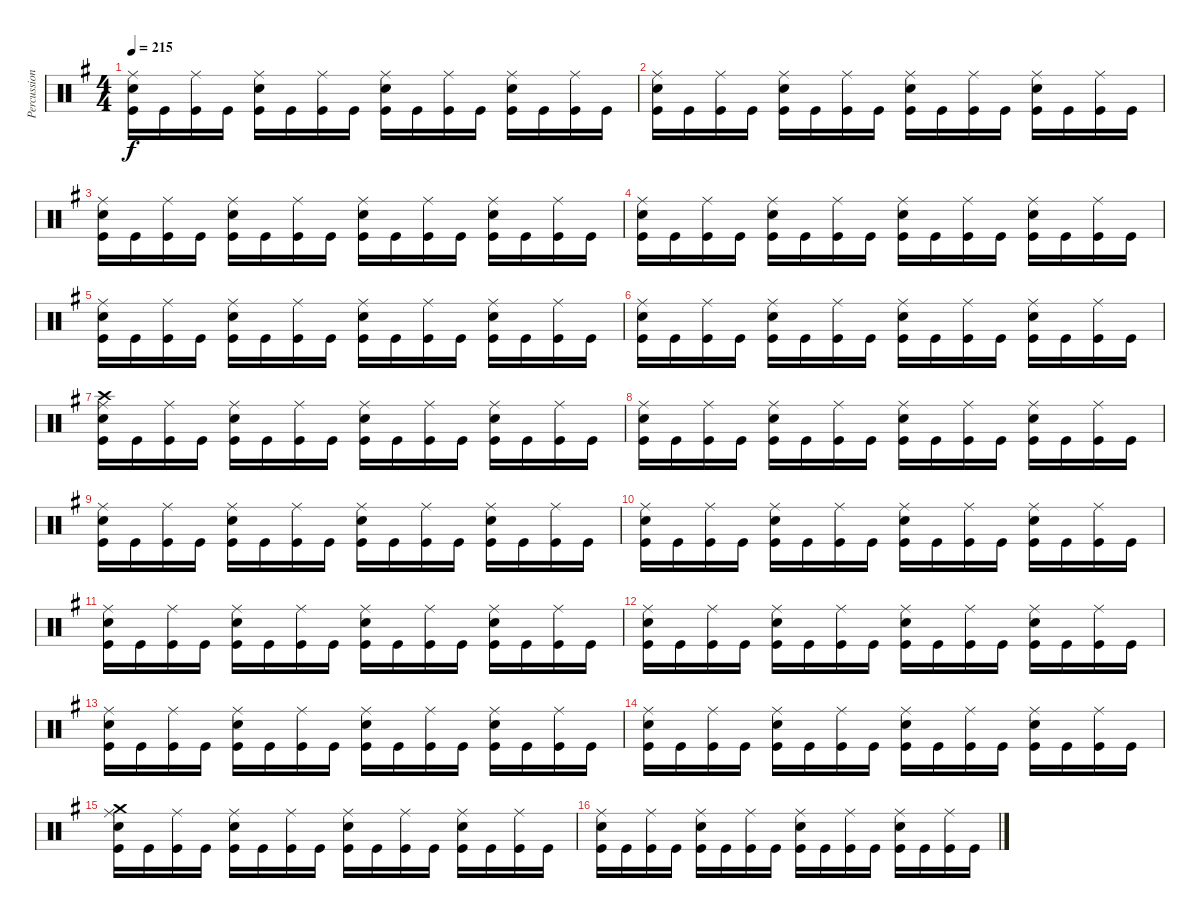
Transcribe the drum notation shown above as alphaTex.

\track ("Percussion" "Percussion") {instrument percussion}
\staff {score}
\articulation defaults
\ts (4 4)
\tempo 215
\clef neutral
\ks eminor
("Ride (middle)" "Electric Snare (hit)" "Kick (hit)").16{dy f} "Kick (hit)".16 ("Ride (middle)" "Kick (hit)").16 "Kick (hit)".16 ("Ride (middle)" "Electric Snare (hit)" "Kick (hit)").16 "Kick (hit)".16 ("Ride (middle)" "Kick (hit)").16 "Kick (hit)".16 ("Ride (middle)" "Electric Snare (hit)" "Kick (hit)").16 "Kick (hit)".16 ("Ride (middle)" "Kick (hit)").16 "Kick (hit)".16 ("Ride (middle)" "Electric Snare (hit)" "Kick (hit)").16 "Kick (hit)".16 ("Ride (middle)" "Kick (hit)").16 "Kick (hit)".16 |
("Ride (middle)" "Electric Snare (hit)" "Kick (hit)").16 "Kick (hit)".16 ("Ride (middle)" "Kick (hit)").16 "Kick (hit)".16 ("Ride (middle)" "Electric Snare (hit)" "Kick (hit)").16 "Kick (hit)".16 ("Ride (middle)" "Kick (hit)").16 "Kick (hit)".16 ("Ride (middle)" "Electric Snare (hit)" "Kick (hit)").16 "Kick (hit)".16 ("Ride (middle)" "Kick (hit)").16 "Kick (hit)".16 ("Ride (middle)" "Electric Snare (hit)" "Kick (hit)").16 "Kick (hit)".16 ("Ride (middle)" "Kick (hit)").16 "Kick (hit)".16 |
("Ride (middle)" "Electric Snare (hit)" "Kick (hit)").16 "Kick (hit)".16 ("Ride (middle)" "Kick (hit)").16 "Kick (hit)".16 ("Ride (middle)" "Electric Snare (hit)" "Kick (hit)").16 "Kick (hit)".16 ("Ride (middle)" "Kick (hit)").16 "Kick (hit)".16 ("Ride (middle)" "Electric Snare (hit)" "Kick (hit)").16 "Kick (hit)".16 ("Ride (middle)" "Kick (hit)").16 "Kick (hit)".16 ("Ride (middle)" "Electric Snare (hit)" "Kick (hit)").16 "Kick (hit)".16 ("Ride (middle)" "Kick (hit)").16 "Kick (hit)".16 |
("Ride (middle)" "Electric Snare (hit)" "Kick (hit)").16 "Kick (hit)".16 ("Ride (middle)" "Kick (hit)").16 "Kick (hit)".16 ("Ride (middle)" "Electric Snare (hit)" "Kick (hit)").16 "Kick (hit)".16 ("Ride (middle)" "Kick (hit)").16 "Kick (hit)".16 ("Ride (middle)" "Electric Snare (hit)" "Kick (hit)").16 "Kick (hit)".16 ("Ride (middle)" "Kick (hit)").16 "Kick (hit)".16 ("Ride (middle)" "Electric Snare (hit)" "Kick (hit)").16 "Kick (hit)".16 ("Ride (middle)" "Kick (hit)").16 "Kick (hit)".16 |
("Ride (middle)" "Electric Snare (hit)" "Kick (hit)").16 "Kick (hit)".16 ("Ride (middle)" "Kick (hit)").16 "Kick (hit)".16 ("Ride (middle)" "Electric Snare (hit)" "Kick (hit)").16 "Kick (hit)".16 ("Ride (middle)" "Kick (hit)").16 "Kick (hit)".16 ("Ride (middle)" "Electric Snare (hit)" "Kick (hit)").16 "Kick (hit)".16 ("Ride (middle)" "Kick (hit)").16 "Kick (hit)".16 ("Ride (middle)" "Electric Snare (hit)" "Kick (hit)").16 "Kick (hit)".16 ("Ride (middle)" "Kick (hit)").16 "Kick (hit)".16 |
("Ride (middle)" "Electric Snare (hit)" "Kick (hit)").16 "Kick (hit)".16 ("Ride (middle)" "Kick (hit)").16 "Kick (hit)".16 ("Ride (middle)" "Electric Snare (hit)" "Kick (hit)").16 "Kick (hit)".16 ("Ride (middle)" "Kick (hit)").16 "Kick (hit)".16 ("Ride (middle)" "Electric Snare (hit)" "Kick (hit)").16 "Kick (hit)".16 ("Ride (middle)" "Kick (hit)").16 "Kick (hit)".16 ("Ride (middle)" "Electric Snare (hit)" "Kick (hit)").16 "Kick (hit)".16 ("Ride (middle)" "Kick (hit)").16 "Kick (hit)".16 |
("Crash high (hit)" "Ride (middle)" "Electric Snare (hit)" "Kick (hit)").16 "Kick (hit)".16 ("Ride (middle)" "Kick (hit)").16 "Kick (hit)".16 ("Ride (middle)" "Electric Snare (hit)" "Kick (hit)").16 "Kick (hit)".16 ("Ride (middle)" "Kick (hit)").16 "Kick (hit)".16 ("Ride (middle)" "Electric Snare (hit)" "Kick (hit)").16 "Kick (hit)".16 ("Ride (middle)" "Kick (hit)").16 "Kick (hit)".16 ("Ride (middle)" "Electric Snare (hit)" "Kick (hit)").16 "Kick (hit)".16 ("Ride (middle)" "Kick (hit)").16 "Kick (hit)".16 |
("Ride (middle)" "Electric Snare (hit)" "Kick (hit)").16 "Kick (hit)".16 ("Ride (middle)" "Kick (hit)").16 "Kick (hit)".16 ("Ride (middle)" "Electric Snare (hit)" "Kick (hit)").16 "Kick (hit)".16 ("Ride (middle)" "Kick (hit)").16 "Kick (hit)".16 ("Ride (middle)" "Electric Snare (hit)" "Kick (hit)").16 "Kick (hit)".16 ("Ride (middle)" "Kick (hit)").16 "Kick (hit)".16 ("Ride (middle)" "Electric Snare (hit)" "Kick (hit)").16 "Kick (hit)".16 ("Ride (middle)" "Kick (hit)").16 "Kick (hit)".16 |
("Ride (middle)" "Electric Snare (hit)" "Kick (hit)").16 "Kick (hit)".16 ("Ride (middle)" "Kick (hit)").16 "Kick (hit)".16 ("Ride (middle)" "Electric Snare (hit)" "Kick (hit)").16 "Kick (hit)".16 ("Ride (middle)" "Kick (hit)").16 "Kick (hit)".16 ("Ride (middle)" "Electric Snare (hit)" "Kick (hit)").16 "Kick (hit)".16 ("Ride (middle)" "Kick (hit)").16 "Kick (hit)".16 ("Ride (middle)" "Electric Snare (hit)" "Kick (hit)").16 "Kick (hit)".16 ("Ride (middle)" "Kick (hit)").16 "Kick (hit)".16 |
("Ride (middle)" "Electric Snare (hit)" "Kick (hit)").16 "Kick (hit)".16 ("Ride (middle)" "Kick (hit)").16 "Kick (hit)".16 ("Ride (middle)" "Electric Snare (hit)" "Kick (hit)").16 "Kick (hit)".16 ("Ride (middle)" "Kick (hit)").16 "Kick (hit)".16 ("Ride (middle)" "Electric Snare (hit)" "Kick (hit)").16 "Kick (hit)".16 ("Ride (middle)" "Kick (hit)").16 "Kick (hit)".16 ("Ride (middle)" "Electric Snare (hit)" "Kick (hit)").16 "Kick (hit)".16 ("Ride (middle)" "Kick (hit)").16 "Kick (hit)".16 |
("Ride (middle)" "Electric Snare (hit)" "Kick (hit)").16 "Kick (hit)".16 ("Ride (middle)" "Kick (hit)").16 "Kick (hit)".16 ("Ride (middle)" "Electric Snare (hit)" "Kick (hit)").16 "Kick (hit)".16 ("Ride (middle)" "Kick (hit)").16 "Kick (hit)".16 ("Ride (middle)" "Electric Snare (hit)" "Kick (hit)").16 "Kick (hit)".16 ("Ride (middle)" "Kick (hit)").16 "Kick (hit)".16 ("Ride (middle)" "Electric Snare (hit)" "Kick (hit)").16 "Kick (hit)".16 ("Ride (middle)" "Kick (hit)").16 "Kick (hit)".16 |
("Ride (middle)" "Electric Snare (hit)" "Kick (hit)").16 "Kick (hit)".16 ("Ride (middle)" "Kick (hit)").16 "Kick (hit)".16 ("Ride (middle)" "Electric Snare (hit)" "Kick (hit)").16 "Kick (hit)".16 ("Ride (middle)" "Kick (hit)").16 "Kick (hit)".16 ("Ride (middle)" "Electric Snare (hit)" "Kick (hit)").16 "Kick (hit)".16 ("Ride (middle)" "Kick (hit)").16 "Kick (hit)".16 ("Ride (middle)" "Electric Snare (hit)" "Kick (hit)").16 "Kick (hit)".16 ("Ride (middle)" "Kick (hit)").16 "Kick (hit)".16 |
("Ride (middle)" "Electric Snare (hit)" "Kick (hit)").16 "Kick (hit)".16 ("Ride (middle)" "Kick (hit)").16 "Kick (hit)".16 ("Ride (middle)" "Electric Snare (hit)" "Kick (hit)").16 "Kick (hit)".16 ("Ride (middle)" "Kick (hit)").16 "Kick (hit)".16 ("Ride (middle)" "Electric Snare (hit)" "Kick (hit)").16 "Kick (hit)".16 ("Ride (middle)" "Kick (hit)").16 "Kick (hit)".16 ("Ride (middle)" "Electric Snare (hit)" "Kick (hit)").16 "Kick (hit)".16 ("Ride (middle)" "Kick (hit)").16 "Kick (hit)".16 |
("Ride (middle)" "Electric Snare (hit)" "Kick (hit)").16 "Kick (hit)".16 ("Ride (middle)" "Kick (hit)").16 "Kick (hit)".16 ("Ride (middle)" "Electric Snare (hit)" "Kick (hit)").16 "Kick (hit)".16 ("Ride (middle)" "Kick (hit)").16 "Kick (hit)".16 ("Ride (middle)" "Electric Snare (hit)" "Kick (hit)").16 "Kick (hit)".16 ("Ride (middle)" "Kick (hit)").16 "Kick (hit)".16 ("Ride (middle)" "Electric Snare (hit)" "Kick (hit)").16 "Kick (hit)".16 ("Ride (middle)" "Kick (hit)").16 "Kick (hit)".16 |
("Crash medium (hit)" "Ride (middle)" "Electric Snare (hit)" "Kick (hit)").16 "Kick (hit)".16 ("Ride (middle)" "Kick (hit)").16 "Kick (hit)".16 ("Ride (middle)" "Electric Snare (hit)" "Kick (hit)").16 "Kick (hit)".16 ("Ride (middle)" "Kick (hit)").16 "Kick (hit)".16 ("Ride (middle)" "Electric Snare (hit)" "Kick (hit)").16 "Kick (hit)".16 ("Ride (middle)" "Kick (hit)").16 "Kick (hit)".16 ("Ride (middle)" "Electric Snare (hit)" "Kick (hit)").16 "Kick (hit)".16 ("Ride (middle)" "Kick (hit)").16 "Kick (hit)".16 |
("Ride (middle)" "Electric Snare (hit)" "Kick (hit)").16 "Kick (hit)".16 ("Ride (middle)" "Kick (hit)").16 "Kick (hit)".16 ("Ride (middle)" "Electric Snare (hit)" "Kick (hit)").16 "Kick (hit)".16 ("Ride (middle)" "Kick (hit)").16 "Kick (hit)".16 ("Ride (middle)" "Electric Snare (hit)" "Kick (hit)").16 "Kick (hit)".16 ("Ride (middle)" "Kick (hit)").16 "Kick (hit)".16 ("Ride (middle)" "Electric Snare (hit)" "Kick (hit)").16 "Kick (hit)".16 ("Ride (middle)" "Kick (hit)").16 "Kick (hit)".16
